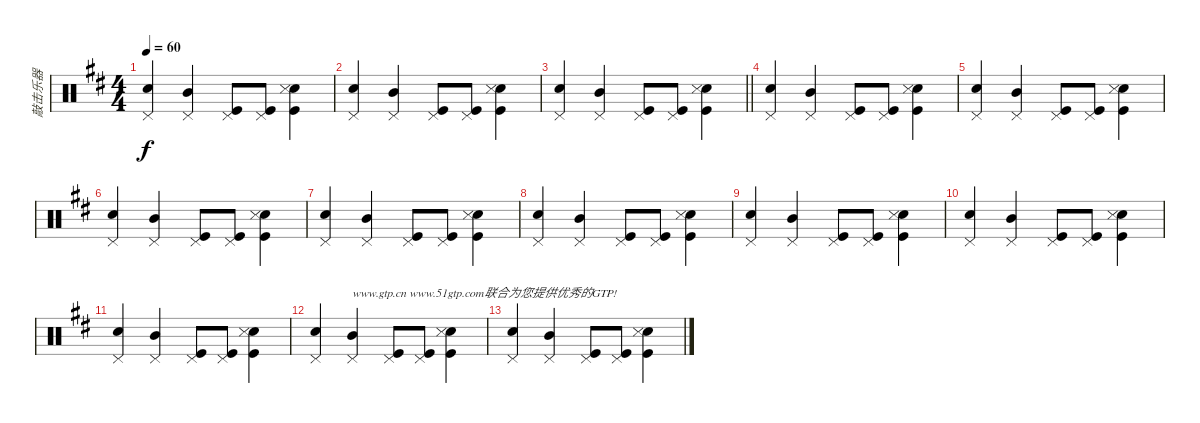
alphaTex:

\track ("敲击乐器" "敲击乐器") {instrument percussion}
\staff {score}
\articulation defaults
\ts (4 4)
\tempo 60
\clef neutral
\ks d
("Snare (hit) 2" "Pedal Hi-Hat (hit)").4{dy f} ("Pedal Hi-Hat (hit)" "Mid Tom (hit)").4 ("Kick (hit)" "Pedal Hi-Hat (hit)").8 ("Pedal Hi-Hat (hit)" "Kick (hit)").8 ("Snare (hit) 2" "Snare (side stick) 3" "Kick (hit)").4 |
("Snare (hit) 2" "Pedal Hi-Hat (hit)").4 ("Pedal Hi-Hat (hit)" "Mid Tom (hit)").4 ("Kick (hit)" "Pedal Hi-Hat (hit)").8 ("Pedal Hi-Hat (hit)" "Kick (hit)").8 ("Snare (hit) 2" "Snare (side stick) 3" "Kick (hit)").4 |
\barLineRight lightlight
("Snare (hit) 2" "Pedal Hi-Hat (hit)").4 ("Pedal Hi-Hat (hit)" "Mid Tom (hit)").4 ("Kick (hit)" "Pedal Hi-Hat (hit)").8 ("Pedal Hi-Hat (hit)" "Kick (hit)").8 ("Snare (hit) 2" "Snare (side stick) 3" "Kick (hit)").4 |
("Snare (hit) 2" "Pedal Hi-Hat (hit)").4 ("Pedal Hi-Hat (hit)" "Mid Tom (hit)").4 ("Kick (hit)" "Pedal Hi-Hat (hit)").8 ("Pedal Hi-Hat (hit)" "Kick (hit)").8 ("Snare (hit) 2" "Snare (side stick) 3" "Kick (hit)").4 |
("Snare (hit) 2" "Pedal Hi-Hat (hit)").4 ("Pedal Hi-Hat (hit)" "Mid Tom (hit)").4 ("Kick (hit)" "Pedal Hi-Hat (hit)").8 ("Pedal Hi-Hat (hit)" "Kick (hit)").8 ("Snare (hit) 2" "Snare (side stick) 3" "Kick (hit)").4 |
("Snare (hit) 2" "Pedal Hi-Hat (hit)").4 ("Pedal Hi-Hat (hit)" "Mid Tom (hit)").4 ("Kick (hit)" "Pedal Hi-Hat (hit)").8 ("Pedal Hi-Hat (hit)" "Kick (hit)").8 ("Snare (hit) 2" "Snare (side stick) 3" "Kick (hit)").4 |
("Snare (hit) 2" "Pedal Hi-Hat (hit)").4 ("Pedal Hi-Hat (hit)" "Mid Tom (hit)").4 ("Kick (hit)" "Pedal Hi-Hat (hit)").8 ("Pedal Hi-Hat (hit)" "Kick (hit)").8 ("Snare (hit) 2" "Snare (side stick) 3" "Kick (hit)").4 |
("Snare (hit) 2" "Pedal Hi-Hat (hit)").4 ("Pedal Hi-Hat (hit)" "Mid Tom (hit)").4 ("Kick (hit)" "Pedal Hi-Hat (hit)").8 ("Pedal Hi-Hat (hit)" "Kick (hit)").8 ("Snare (hit) 2" "Snare (side stick) 3" "Kick (hit)").4 |
("Snare (hit) 2" "Pedal Hi-Hat (hit)").4 ("Pedal Hi-Hat (hit)" "Mid Tom (hit)").4 ("Kick (hit)" "Pedal Hi-Hat (hit)").8 ("Pedal Hi-Hat (hit)" "Kick (hit)").8 ("Snare (hit) 2" "Snare (side stick) 3" "Kick (hit)").4 |
("Snare (hit) 2" "Pedal Hi-Hat (hit)").4 ("Pedal Hi-Hat (hit)" "Mid Tom (hit)").4 ("Kick (hit)" "Pedal Hi-Hat (hit)").8 ("Pedal Hi-Hat (hit)" "Kick (hit)").8 ("Snare (hit) 2" "Snare (side stick) 3" "Kick (hit)").4 |
("Snare (hit) 2" "Pedal Hi-Hat (hit)").4 ("Pedal Hi-Hat (hit)" "Mid Tom (hit)").4 ("Kick (hit)" "Pedal Hi-Hat (hit)").8 ("Pedal Hi-Hat (hit)" "Kick (hit)").8 ("Snare (hit) 2" "Snare (side stick) 3" "Kick (hit)").4 |
("Snare (hit) 2" "Pedal Hi-Hat (hit)").4 ("Pedal Hi-Hat (hit)" "Mid Tom (hit)").4{txt "www.gtp.cn www.51gtp.com联合为您提供优秀的GTP!"} ("Kick (hit)" "Pedal Hi-Hat (hit)").8 ("Pedal Hi-Hat (hit)" "Kick (hit)").8 ("Snare (hit) 2" "Snare (side stick) 3" "Kick (hit)").4 |
("Snare (hit) 2" "Pedal Hi-Hat (hit)").4 ("Pedal Hi-Hat (hit)" "Mid Tom (hit)").4 ("Kick (hit)" "Pedal Hi-Hat (hit)").8 ("Pedal Hi-Hat (hit)" "Kick (hit)").8 ("Snare (hit) 2" "Snare (side stick) 3" "Kick (hit)").4
